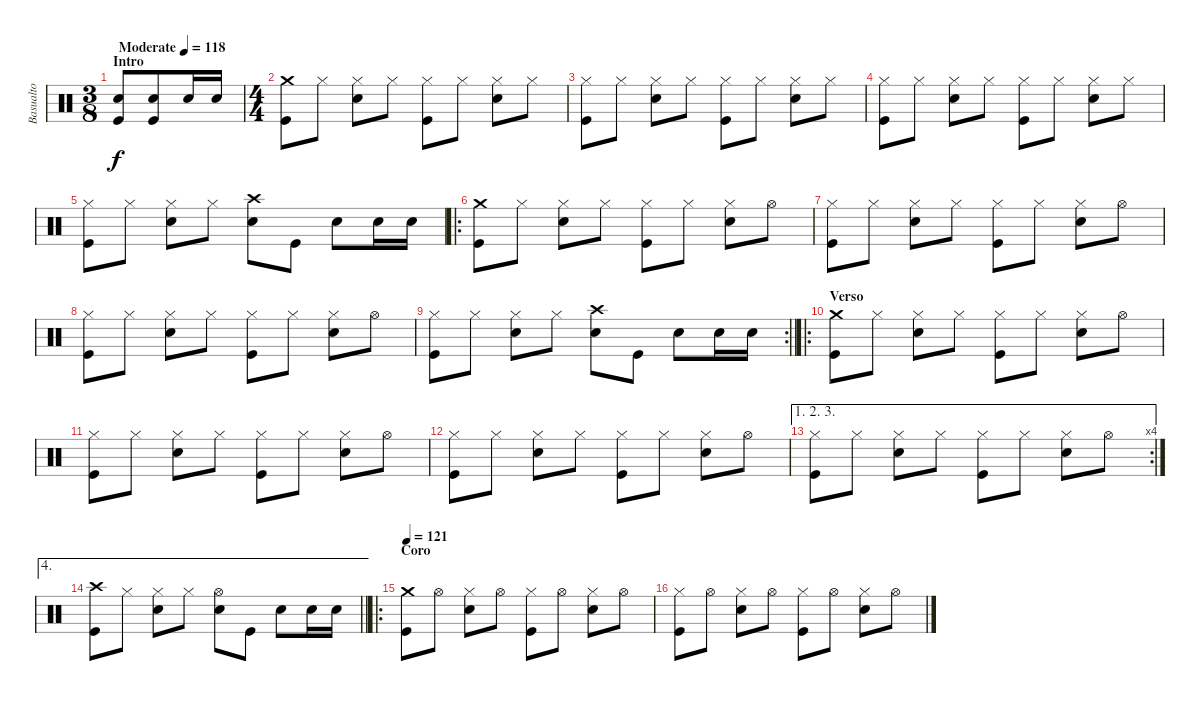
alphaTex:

\track ("Basualto" "Basualto") {instrument percussion}
\staff {score}
\articulation defaults
\ts (3 8)
\section ("" "Intro")
\tempo (118 "Moderate")
\clef neutral
\ks c
("Snare (hit) 2" "Kick (hit)").8{dy f} ("Snare (hit) 2" "Kick (hit)").8 "Snare (hit) 2".16 "Snare (hit) 2".16 |
\ts (4 4)
("Crash medium (hit)" "Kick (hit)").8 "Hi-Hat (closed)".8 ("Hi-Hat (closed)" "Snare (hit) 2").8 "Hi-Hat (closed)".8 ("Hi-Hat (closed)" "Kick (hit)").8 "Hi-Hat (closed)".8 ("Hi-Hat (closed)" "Snare (hit) 2").8 "Hi-Hat (closed)".8 |
("Hi-Hat (closed)" "Kick (hit)").8 "Hi-Hat (closed)".8 ("Hi-Hat (closed)" "Snare (hit) 2").8 "Hi-Hat (closed)".8 ("Hi-Hat (closed)" "Kick (hit)").8 "Hi-Hat (closed)".8 ("Hi-Hat (closed)" "Snare (hit) 2").8 "Hi-Hat (closed)".8 |
("Hi-Hat (closed)" "Kick (hit)").8 "Hi-Hat (closed)".8 ("Hi-Hat (closed)" "Snare (hit) 2").8 "Hi-Hat (closed)".8 ("Hi-Hat (closed)" "Kick (hit)").8 "Hi-Hat (closed)".8 ("Hi-Hat (closed)" "Snare (hit) 2").8 "Hi-Hat (closed)".8 |
("Hi-Hat (closed)" "Kick (hit)").8 "Hi-Hat (closed)".8 ("Hi-Hat (closed)" "Snare (hit) 2").8 "Hi-Hat (closed)".8 ("Snare (hit) 2" "Crash high (hit)").8 "Kick (hit)".8 "Snare (hit) 2".8 "Snare (hit) 2".16 "Snare (hit) 2".16 |
\ro
("Crash medium (hit)" "Kick (hit)").8 "Hi-Hat (closed)".8 ("Hi-Hat (closed)" "Snare (hit) 2").8 "Hi-Hat (closed)".8 ("Hi-Hat (closed)" "Kick (hit)").8 "Hi-Hat (closed)".8 ("Hi-Hat (closed)" "Snare (hit) 2").8 "Hi-Hat (open)".8 |
("Hi-Hat (closed)" "Kick (hit)").8 "Hi-Hat (closed)".8 ("Hi-Hat (closed)" "Snare (hit) 2").8 "Hi-Hat (closed)".8 ("Hi-Hat (closed)" "Kick (hit)").8 "Hi-Hat (closed)".8 ("Hi-Hat (closed)" "Snare (hit) 2").8 "Hi-Hat (open)".8 |
("Hi-Hat (closed)" "Kick (hit)").8 "Hi-Hat (closed)".8 ("Hi-Hat (closed)" "Snare (hit) 2").8 "Hi-Hat (closed)".8 ("Hi-Hat (closed)" "Kick (hit)").8 "Hi-Hat (closed)".8 ("Hi-Hat (closed)" "Snare (hit) 2").8 "Hi-Hat (open)".8 |
\rc 2
\barLineRight lightlight
("Hi-Hat (closed)" "Kick (hit)").8 "Hi-Hat (closed)".8 ("Hi-Hat (closed)" "Snare (hit) 2").8 "Hi-Hat (closed)".8 ("Snare (hit) 2" "Crash high (hit)").8 "Kick (hit)".8 "Snare (hit) 2".8 "Snare (hit) 2".16 "Snare (hit) 2".16 |
\ro
\section ("" "Verso")
("Crash medium (hit)" "Kick (hit)").8 "Hi-Hat (closed)".8 ("Hi-Hat (closed)" "Snare (hit) 2").8 "Hi-Hat (closed)".8 ("Hi-Hat (closed)" "Kick (hit)").8 "Hi-Hat (closed)".8 ("Hi-Hat (closed)" "Snare (hit) 2").8 "Hi-Hat (open)".8 |
("Hi-Hat (closed)" "Kick (hit)").8 "Hi-Hat (closed)".8 ("Hi-Hat (closed)" "Snare (hit) 2").8 "Hi-Hat (closed)".8 ("Hi-Hat (closed)" "Kick (hit)").8 "Hi-Hat (closed)".8 ("Hi-Hat (closed)" "Snare (hit) 2").8 "Hi-Hat (open)".8 |
("Hi-Hat (closed)" "Kick (hit)").8 "Hi-Hat (closed)".8 ("Hi-Hat (closed)" "Snare (hit) 2").8 "Hi-Hat (closed)".8 ("Hi-Hat (closed)" "Kick (hit)").8 "Hi-Hat (closed)".8 ("Hi-Hat (closed)" "Snare (hit) 2").8 "Hi-Hat (open)".8 |
\ae (1 2 3)
\rc 4
("Hi-Hat (closed)" "Kick (hit)").8 "Hi-Hat (closed)".8 ("Hi-Hat (closed)" "Snare (hit) 2").8 "Hi-Hat (closed)".8 ("Hi-Hat (closed)" "Kick (hit)").8 "Hi-Hat (closed)".8 ("Hi-Hat (closed)" "Snare (hit) 2").8 "Hi-Hat (open)".8 |
\ae 4
\barLineRight lightlight
("Crash high (hit)" "Kick (hit)").8 "Hi-Hat (closed)".8 ("Snare (hit) 2" "Hi-Hat (closed)").8 "Hi-Hat (closed)".8 ("Snare (hit) 2" "Hi-Hat (open)").8 "Kick (hit)".8 "Snare (hit) 2".8 "Snare (hit) 2".16 "Snare (hit) 2".16 |
\ro
\section ("" "Coro")
\tempo 121
("Crash medium (hit)" "Kick (hit)").8 "Hi-Hat (open)".8 ("Hi-Hat (closed)" "Snare (hit) 2").8 "Hi-Hat (open)".8 ("Hi-Hat (closed)" "Kick (hit)").8 "Hi-Hat (open)".8 ("Hi-Hat (closed)" "Snare (hit) 2").8 "Hi-Hat (open)".8 |
("Hi-Hat (closed)" "Kick (hit)").8 "Hi-Hat (open)".8 ("Hi-Hat (closed)" "Snare (hit) 2").8 "Hi-Hat (open)".8 ("Hi-Hat (closed)" "Kick (hit)").8 "Hi-Hat (open)".8 ("Hi-Hat (closed)" "Snare (hit) 2").8 "Hi-Hat (open)".8
